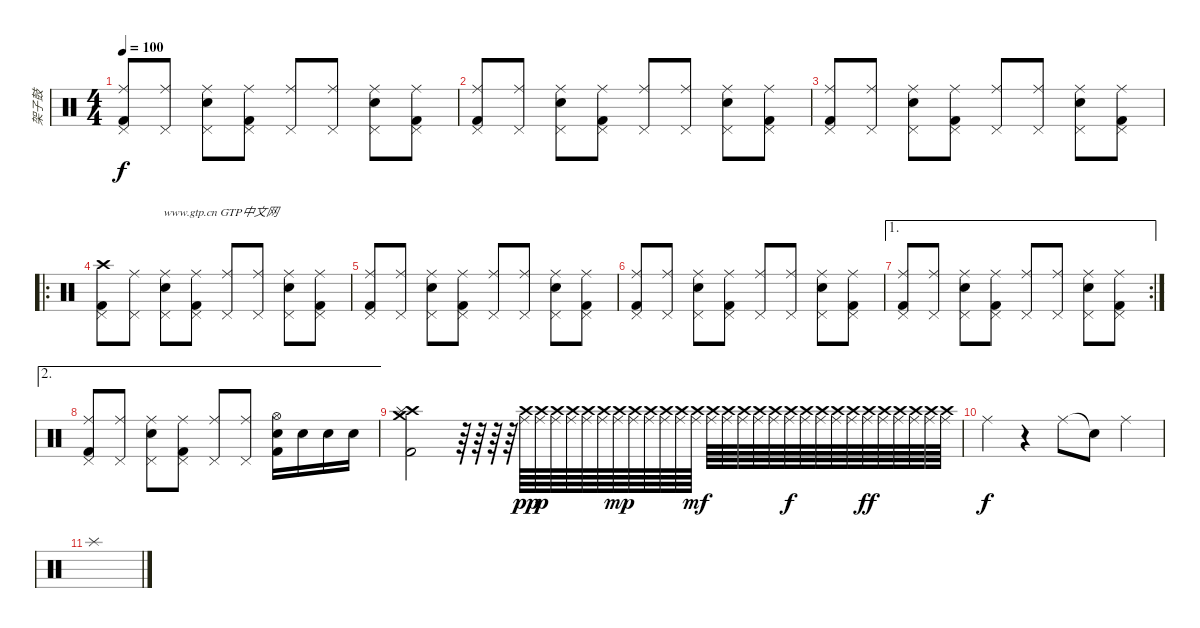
\track ("架子鼓" "架子鼓") {instrument percussion}
\staff {score}
\articulation defaults
\ts (4 4)
\tempo 100
\clef neutral
\ks c
("Ride (middle)" "Pedal Hi-Hat (hit)" "Kick (hit) 2").8{dy f} ("Ride (middle)" "Pedal Hi-Hat (hit)").8 ("Ride (middle)" "Pedal Hi-Hat (hit)" "Snare (hit) 2").8 ("Ride (middle)" "Pedal Hi-Hat (hit)" "Kick (hit) 2").8 ("Ride (middle)" "Pedal Hi-Hat (hit)").8 ("Ride (middle)" "Pedal Hi-Hat (hit)").8 ("Ride (middle)" "Pedal Hi-Hat (hit)" "Snare (hit) 2").8 ("Ride (middle)" "Pedal Hi-Hat (hit)" "Kick (hit) 2").8 |
("Ride (middle)" "Pedal Hi-Hat (hit)" "Kick (hit) 2").8 ("Ride (middle)" "Pedal Hi-Hat (hit)").8 ("Ride (middle)" "Pedal Hi-Hat (hit)" "Snare (hit) 2").8 ("Ride (middle)" "Pedal Hi-Hat (hit)" "Kick (hit) 2").8 ("Ride (middle)" "Pedal Hi-Hat (hit)").8 ("Ride (middle)" "Pedal Hi-Hat (hit)").8 ("Ride (middle)" "Pedal Hi-Hat (hit)" "Snare (hit) 2").8 ("Ride (middle)" "Pedal Hi-Hat (hit)" "Kick (hit) 2").8 |
("Ride (middle)" "Pedal Hi-Hat (hit)" "Kick (hit) 2").8 ("Ride (middle)" "Pedal Hi-Hat (hit)").8 ("Ride (middle)" "Pedal Hi-Hat (hit)" "Snare (hit) 2").8 ("Ride (middle)" "Pedal Hi-Hat (hit)" "Kick (hit) 2").8 ("Ride (middle)" "Pedal Hi-Hat (hit)").8 ("Ride (middle)" "Pedal Hi-Hat (hit)").8 ("Ride (middle)" "Pedal Hi-Hat (hit)" "Snare (hit) 2").8 ("Ride (middle)" "Pedal Hi-Hat (hit)" "Kick (hit) 2").8 |
\ro
("Crash high (hit)" "Pedal Hi-Hat (hit)" "Kick (hit) 2").8{txt "                    www.gtp.cn GTP中文网"} ("Ride (middle)" "Pedal Hi-Hat (hit)").8 ("Ride (middle)" "Pedal Hi-Hat (hit)" "Snare (hit) 2").8 ("Ride (middle)" "Pedal Hi-Hat (hit)" "Kick (hit) 2").8 ("Ride (middle)" "Pedal Hi-Hat (hit)").8 ("Ride (middle)" "Pedal Hi-Hat (hit)").8 ("Ride (middle)" "Pedal Hi-Hat (hit)" "Snare (hit) 2").8 ("Ride (middle)" "Pedal Hi-Hat (hit)" "Kick (hit) 2").8 |
("Ride (middle)" "Pedal Hi-Hat (hit)" "Kick (hit) 2").8 ("Ride (middle)" "Pedal Hi-Hat (hit)").8 ("Ride (middle)" "Pedal Hi-Hat (hit)" "Snare (hit) 2").8 ("Ride (middle)" "Pedal Hi-Hat (hit)" "Kick (hit) 2").8 ("Ride (middle)" "Pedal Hi-Hat (hit)").8 ("Ride (middle)" "Pedal Hi-Hat (hit)").8 ("Ride (middle)" "Pedal Hi-Hat (hit)" "Snare (hit) 2").8 ("Ride (middle)" "Pedal Hi-Hat (hit)" "Kick (hit) 2").8 |
("Ride (middle)" "Pedal Hi-Hat (hit)" "Kick (hit) 2").8 ("Ride (middle)" "Pedal Hi-Hat (hit)").8 ("Ride (middle)" "Pedal Hi-Hat (hit)" "Snare (hit) 2").8 ("Ride (middle)" "Pedal Hi-Hat (hit)" "Kick (hit) 2").8 ("Ride (middle)" "Pedal Hi-Hat (hit)").8 ("Ride (middle)" "Pedal Hi-Hat (hit)").8 ("Ride (middle)" "Pedal Hi-Hat (hit)" "Snare (hit) 2").8 ("Ride (middle)" "Pedal Hi-Hat (hit)" "Kick (hit) 2").8 |
\ae 1
\rc 2
("Ride (middle)" "Pedal Hi-Hat (hit)" "Kick (hit) 2").8 ("Ride (middle)" "Pedal Hi-Hat (hit)").8 ("Ride (middle)" "Pedal Hi-Hat (hit)" "Snare (hit) 2").8 ("Ride (middle)" "Pedal Hi-Hat (hit)" "Kick (hit) 2").8 ("Ride (middle)" "Pedal Hi-Hat (hit)").8 ("Ride (middle)" "Pedal Hi-Hat (hit)").8 ("Ride (middle)" "Pedal Hi-Hat (hit)" "Snare (hit) 2").8 ("Ride (middle)" "Pedal Hi-Hat (hit)" "Kick (hit) 2").8 |
\ae 2
("Ride (middle)" "Pedal Hi-Hat (hit)" "Kick (hit) 2").8 ("Ride (middle)" "Pedal Hi-Hat (hit)").8 ("Ride (middle)" "Pedal Hi-Hat (hit)" "Snare (hit) 2").8 ("Ride (middle)" "Pedal Hi-Hat (hit)" "Kick (hit) 2").8 ("Ride (middle)" "Pedal Hi-Hat (hit)").8 ("Ride (middle)" "Pedal Hi-Hat (hit)").8 ("Hi-Hat (open)" "Snare (hit) 2" "Kick (hit) 2").16 "Snare (hit) 2".16 "Snare (hit) 2".16 "Snare (hit) 2".16 |
("Crash high (hit)" "Splash (hit)" "Crash medium (hit)" "Kick (hit) 2").2 r.64 r.64 r.64 r.64 ("Crash high (hit)" "Ride (middle)").64{dy pp} ("Crash high (hit)" "Ride (middle)").64{dy p} ("Crash high (hit)" "Ride (middle)").64 ("Crash high (hit)" "Ride (middle)").64 ("Crash high (hit)" "Ride (middle)").64 ("Crash high (hit)" "Ride (middle)").64 ("Crash high (hit)" "Ride (middle)").64{dy mp} ("Crash high (hit)" "Ride (middle)").64 ("Crash high (hit)" "Ride (middle)").64 ("Crash high (hit)" "Ride (middle)").64 ("Crash high (hit)" "Ride (middle)").64 ("Crash high (hit)" "Ride (middle)").64{dy mf} ("Crash high (hit)" "Ride (middle)").64 ("Crash high (hit)" "Ride (middle)").64 ("Crash high (hit)" "Ride (middle)").64 ("Crash high (hit)" "Ride (middle)").64 ("Crash high (hit)" "Ride (middle)").64 ("Crash high (hit)" "Ride (middle)").64{dy f} ("Crash high (hit)" "Ride (middle)").64 ("Crash high (hit)" "Ride (middle)").64 ("Crash high (hit)" "Ride (middle)").64 ("Crash high (hit)" "Ride (middle)").64 ("Crash high (hit)" "Ride (middle)").64{dy ff} ("Crash high (hit)" "Ride (middle)").64 ("Crash high (hit)" "Ride (middle)").64 ("Crash high (hit)" "Ride (middle)").64 ("Crash high (hit)" "Ride (middle)").64 ("Crash high (hit)" "Ride (middle)").64 |
"Ride (middle)".4{dy f} r.4 "Ride (middle)".8 "Snare (hit)"{t}.8 "Ride (middle)".4 |
"Splash (hit)".1
